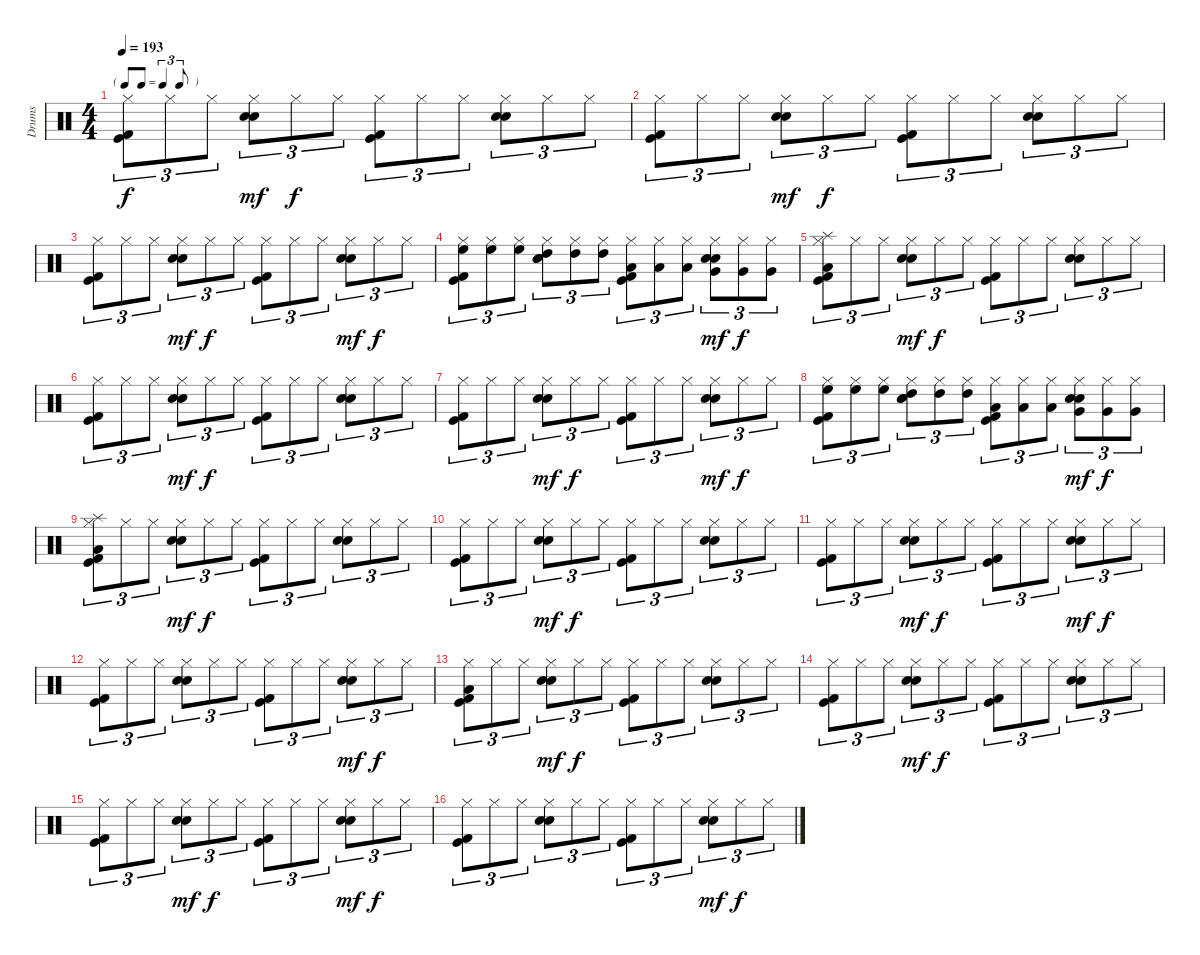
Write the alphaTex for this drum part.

\track ("Drums" "Drums") {instrument percussion}
\staff {score}
\articulation defaults
\ts (4 4)
\tf triplet8th
\tempo 193
\clef neutral
\ks c
("Hi-Hat (closed)" "Kick (hit) 2" "Kick (hit)").8{tu (3 2) dy f} "Hi-Hat (closed)".8{tu (3 2)} "Hi-Hat (closed)".8{tu (3 2)} ("Hi-Hat (closed)" "Electric Snare (hit)" "Snare (hit) 2").8{tu (3 2) dy mf} "Hi-Hat (closed)".8{tu (3 2) dy f} "Hi-Hat (closed)".8{tu (3 2)} ("Hi-Hat (closed)" "Kick (hit) 2" "Kick (hit)").8{tu (3 2)} "Hi-Hat (closed)".8{tu (3 2)} "Hi-Hat (closed)".8{tu (3 2)} ("Hi-Hat (closed)" "Snare (hit) 2" "Electric Snare (hit)").8{tu (3 2)} "Hi-Hat (closed)".8{tu (3 2)} "Hi-Hat (closed)".8{tu (3 2)} |
("Kick (hit)" "Kick (hit) 2" "Hi-Hat (closed)").8{tu (3 2)} "Hi-Hat (closed)".8{tu (3 2)} "Hi-Hat (closed)".8{tu (3 2)} ("Snare (hit) 2" "Electric Snare (hit)" "Hi-Hat (closed)").8{tu (3 2) dy mf} "Hi-Hat (closed)".8{tu (3 2) dy f} "Hi-Hat (closed)".8{tu (3 2)} ("Kick (hit)" "Kick (hit) 2" "Hi-Hat (closed)").8{tu (3 2)} "Hi-Hat (closed)".8{tu (3 2)} "Hi-Hat (closed)".8{tu (3 2)} ("Snare (hit) 2" "Electric Snare (hit)" "Hi-Hat (closed)").8{tu (3 2)} "Hi-Hat (closed)".8{tu (3 2)} "Hi-Hat (closed)".8{tu (3 2)} |
("Kick (hit) 2" "Kick (hit)" "Hi-Hat (closed)").8{tu (3 2)} "Hi-Hat (closed)".8{tu (3 2)} "Hi-Hat (closed)".8{tu (3 2)} ("Snare (hit) 2" "Electric Snare (hit)" "Hi-Hat (closed)").8{tu (3 2) dy mf} "Hi-Hat (closed)".8{tu (3 2) dy f} "Hi-Hat (closed)".8{tu (3 2)} ("Kick (hit)" "Kick (hit) 2" "Hi-Hat (closed)").8{tu (3 2)} "Hi-Hat (closed)".8{tu (3 2)} "Hi-Hat (closed)".8{tu (3 2)} ("Hi-Hat (closed)" "Electric Snare (hit)" "Snare (hit) 2").8{tu (3 2) dy mf} "Hi-Hat (closed)".8{tu (3 2) dy f} "Hi-Hat (closed)".8{tu (3 2)} |
("High Floor Tom (hit)" "Hi-Hat (closed)" "Kick (hit) 2" "Kick (hit)").8{tu (3 2)} ("High Floor Tom (hit)" "Hi-Hat (closed)").8{tu (3 2)} ("High Floor Tom (hit)" "Hi-Hat (closed)").8{tu (3 2)} ("High Tom (hit)" "Hi-Hat (closed)" "Snare (hit) 2" "Electric Snare (hit)").8{tu (3 2)} ("High Tom (hit)" "Hi-Hat (closed)").8{tu (3 2)} ("High Tom (hit)" "Hi-Hat (closed)").8{tu (3 2)} ("Low Tom (hit)" "Kick (hit)" "Kick (hit) 2" "Hi-Hat (closed)").8{tu (3 2)} ("Low Tom (hit)" "Hi-Hat (closed)").8{tu (3 2)} ("Low Tom (hit)" "Hi-Hat (closed)").8{tu (3 2)} ("Hi-Hat (closed)" "Very Low Tom (hit)" "Snare (hit) 2" "Electric Snare (hit)").8{tu (3 2) dy mf} ("Very Low Tom (hit)" "Hi-Hat (closed)").8{tu (3 2) dy f} ("Very Low Tom (hit)" "Hi-Hat (closed)").8{tu (3 2)} |
("Splash (hit)" "Hi-Hat (closed)" "Kick (hit) 2" "Kick (hit)" "Low Floor Tom (hit)").8{tu (3 2)} "Hi-Hat (closed)".8{tu (3 2)} "Hi-Hat (closed)".8{tu (3 2)} ("Hi-Hat (closed)" "Electric Snare (hit)" "Snare (hit) 2").8{tu (3 2) dy mf} "Hi-Hat (closed)".8{tu (3 2) dy f} "Hi-Hat (closed)".8{tu (3 2)} ("Hi-Hat (closed)" "Kick (hit) 2" "Kick (hit)").8{tu (3 2)} "Hi-Hat (closed)".8{tu (3 2)} "Hi-Hat (closed)".8{tu (3 2)} ("Hi-Hat (closed)" "Snare (hit) 2" "Electric Snare (hit)").8{tu (3 2)} "Hi-Hat (closed)".8{tu (3 2)} "Hi-Hat (closed)".8{tu (3 2)} |
("Kick (hit)" "Kick (hit) 2" "Hi-Hat (closed)").8{tu (3 2)} "Hi-Hat (closed)".8{tu (3 2)} "Hi-Hat (closed)".8{tu (3 2)} ("Snare (hit) 2" "Electric Snare (hit)" "Hi-Hat (closed)").8{tu (3 2) dy mf} "Hi-Hat (closed)".8{tu (3 2) dy f} "Hi-Hat (closed)".8{tu (3 2)} ("Kick (hit)" "Kick (hit) 2" "Hi-Hat (closed)").8{tu (3 2)} "Hi-Hat (closed)".8{tu (3 2)} "Hi-Hat (closed)".8{tu (3 2)} ("Snare (hit) 2" "Electric Snare (hit)" "Hi-Hat (closed)").8{tu (3 2)} "Hi-Hat (closed)".8{tu (3 2)} "Hi-Hat (closed)".8{tu (3 2)} |
("Kick (hit) 2" "Kick (hit)" "Hi-Hat (closed)").8{tu (3 2)} "Hi-Hat (closed)".8{tu (3 2)} "Hi-Hat (closed)".8{tu (3 2)} ("Snare (hit) 2" "Electric Snare (hit)" "Hi-Hat (closed)").8{tu (3 2) dy mf} "Hi-Hat (closed)".8{tu (3 2) dy f} "Hi-Hat (closed)".8{tu (3 2)} ("Kick (hit)" "Kick (hit) 2" "Hi-Hat (closed)").8{tu (3 2)} "Hi-Hat (closed)".8{tu (3 2)} "Hi-Hat (closed)".8{tu (3 2)} ("Hi-Hat (closed)" "Electric Snare (hit)" "Snare (hit) 2").8{tu (3 2) dy mf} "Hi-Hat (closed)".8{tu (3 2) dy f} "Hi-Hat (closed)".8{tu (3 2)} |
("High Floor Tom (hit)" "Hi-Hat (closed)" "Kick (hit) 2" "Kick (hit)").8{tu (3 2)} ("High Floor Tom (hit)" "Hi-Hat (closed)").8{tu (3 2)} ("High Floor Tom (hit)" "Hi-Hat (closed)").8{tu (3 2)} ("High Tom (hit)" "Hi-Hat (closed)" "Snare (hit) 2" "Electric Snare (hit)").8{tu (3 2)} ("High Tom (hit)" "Hi-Hat (closed)").8{tu (3 2)} ("High Tom (hit)" "Hi-Hat (closed)").8{tu (3 2)} ("Low Tom (hit)" "Kick (hit)" "Kick (hit) 2" "Hi-Hat (closed)").8{tu (3 2)} ("Low Tom (hit)" "Hi-Hat (closed)").8{tu (3 2)} ("Low Tom (hit)" "Hi-Hat (closed)").8{tu (3 2)} ("Hi-Hat (closed)" "Very Low Tom (hit)" "Snare (hit) 2" "Electric Snare (hit)").8{tu (3 2) dy mf} ("Very Low Tom (hit)" "Hi-Hat (closed)").8{tu (3 2) dy f} ("Very Low Tom (hit)" "Hi-Hat (closed)").8{tu (3 2)} |
("Splash (hit)" "Hi-Hat (closed)" "Kick (hit) 2" "Kick (hit)" "Low Floor Tom (hit)").8{tu (3 2)} "Hi-Hat (closed)".8{tu (3 2)} "Hi-Hat (closed)".8{tu (3 2)} ("Hi-Hat (closed)" "Electric Snare (hit)" "Snare (hit) 2").8{tu (3 2) dy mf} "Hi-Hat (closed)".8{tu (3 2) dy f} "Hi-Hat (closed)".8{tu (3 2)} ("Hi-Hat (closed)" "Kick (hit) 2" "Kick (hit)").8{tu (3 2)} "Hi-Hat (closed)".8{tu (3 2)} "Hi-Hat (closed)".8{tu (3 2)} ("Hi-Hat (closed)" "Snare (hit) 2" "Electric Snare (hit)").8{tu (3 2)} "Hi-Hat (closed)".8{tu (3 2)} "Hi-Hat (closed)".8{tu (3 2)} |
("Kick (hit)" "Kick (hit) 2" "Hi-Hat (closed)").8{tu (3 2)} "Hi-Hat (closed)".8{tu (3 2)} "Hi-Hat (closed)".8{tu (3 2)} ("Snare (hit) 2" "Electric Snare (hit)" "Hi-Hat (closed)").8{tu (3 2) dy mf} "Hi-Hat (closed)".8{tu (3 2) dy f} "Hi-Hat (closed)".8{tu (3 2)} ("Kick (hit)" "Kick (hit) 2" "Hi-Hat (closed)").8{tu (3 2)} "Hi-Hat (closed)".8{tu (3 2)} "Hi-Hat (closed)".8{tu (3 2)} ("Snare (hit) 2" "Electric Snare (hit)" "Hi-Hat (closed)").8{tu (3 2)} "Hi-Hat (closed)".8{tu (3 2)} "Hi-Hat (closed)".8{tu (3 2)} |
("Kick (hit) 2" "Kick (hit)" "Hi-Hat (closed)").8{tu (3 2)} "Hi-Hat (closed)".8{tu (3 2)} "Hi-Hat (closed)".8{tu (3 2)} ("Snare (hit) 2" "Electric Snare (hit)" "Hi-Hat (closed)").8{tu (3 2) dy mf} "Hi-Hat (closed)".8{tu (3 2) dy f} "Hi-Hat (closed)".8{tu (3 2)} ("Kick (hit)" "Kick (hit) 2" "Hi-Hat (closed)").8{tu (3 2)} "Hi-Hat (closed)".8{tu (3 2)} "Hi-Hat (closed)".8{tu (3 2)} ("Hi-Hat (closed)" "Electric Snare (hit)" "Snare (hit) 2").8{tu (3 2) dy mf} "Hi-Hat (closed)".8{tu (3 2) dy f} "Hi-Hat (closed)".8{tu (3 2)} |
("Hi-Hat (closed)" "Kick (hit) 2" "Kick (hit)").8{tu (3 2)} "Hi-Hat (closed)".8{tu (3 2)} "Hi-Hat (closed)".8{tu (3 2)} ("Hi-Hat (closed)" "Snare (hit) 2" "Electric Snare (hit)").8{tu (3 2)} "Hi-Hat (closed)".8{tu (3 2)} "Hi-Hat (closed)".8{tu (3 2)} ("Kick (hit)" "Kick (hit) 2" "Hi-Hat (closed)").8{tu (3 2)} "Hi-Hat (closed)".8{tu (3 2)} "Hi-Hat (closed)".8{tu (3 2)} ("Hi-Hat (closed)" "Snare (hit) 2" "Electric Snare (hit)").8{tu (3 2) dy mf} "Hi-Hat (closed)".8{tu (3 2) dy f} "Hi-Hat (closed)".8{tu (3 2)} |
("Hi-Hat (closed)" "Kick (hit) 2" "Kick (hit)" "Low Floor Tom (hit)").8{tu (3 2)} "Hi-Hat (closed)".8{tu (3 2)} "Hi-Hat (closed)".8{tu (3 2)} ("Hi-Hat (closed)" "Electric Snare (hit)" "Snare (hit) 2").8{tu (3 2) dy mf} "Hi-Hat (closed)".8{tu (3 2) dy f} "Hi-Hat (closed)".8{tu (3 2)} ("Hi-Hat (closed)" "Kick (hit) 2" "Kick (hit)").8{tu (3 2)} "Hi-Hat (closed)".8{tu (3 2)} "Hi-Hat (closed)".8{tu (3 2)} ("Hi-Hat (closed)" "Snare (hit) 2" "Electric Snare (hit)").8{tu (3 2)} "Hi-Hat (closed)".8{tu (3 2)} "Hi-Hat (closed)".8{tu (3 2)} |
("Kick (hit)" "Kick (hit) 2" "Hi-Hat (closed)").8{tu (3 2)} "Hi-Hat (closed)".8{tu (3 2)} "Hi-Hat (closed)".8{tu (3 2)} ("Snare (hit) 2" "Electric Snare (hit)" "Hi-Hat (closed)").8{tu (3 2) dy mf} "Hi-Hat (closed)".8{tu (3 2) dy f} "Hi-Hat (closed)".8{tu (3 2)} ("Kick (hit)" "Kick (hit) 2" "Hi-Hat (closed)").8{tu (3 2)} "Hi-Hat (closed)".8{tu (3 2)} "Hi-Hat (closed)".8{tu (3 2)} ("Snare (hit) 2" "Electric Snare (hit)" "Hi-Hat (closed)").8{tu (3 2)} "Hi-Hat (closed)".8{tu (3 2)} "Hi-Hat (closed)".8{tu (3 2)} |
("Kick (hit) 2" "Kick (hit)" "Hi-Hat (closed)").8{tu (3 2)} "Hi-Hat (closed)".8{tu (3 2)} "Hi-Hat (closed)".8{tu (3 2)} ("Snare (hit) 2" "Electric Snare (hit)" "Hi-Hat (closed)").8{tu (3 2) dy mf} "Hi-Hat (closed)".8{tu (3 2) dy f} "Hi-Hat (closed)".8{tu (3 2)} ("Kick (hit)" "Kick (hit) 2" "Hi-Hat (closed)").8{tu (3 2)} "Hi-Hat (closed)".8{tu (3 2)} "Hi-Hat (closed)".8{tu (3 2)} ("Hi-Hat (closed)" "Electric Snare (hit)" "Snare (hit) 2").8{tu (3 2) dy mf} "Hi-Hat (closed)".8{tu (3 2) dy f} "Hi-Hat (closed)".8{tu (3 2)} |
("Hi-Hat (closed)" "Kick (hit) 2" "Kick (hit)").8{tu (3 2)} "Hi-Hat (closed)".8{tu (3 2)} "Hi-Hat (closed)".8{tu (3 2)} ("Hi-Hat (closed)" "Snare (hit) 2" "Electric Snare (hit)").8{tu (3 2)} "Hi-Hat (closed)".8{tu (3 2)} "Hi-Hat (closed)".8{tu (3 2)} ("Kick (hit)" "Kick (hit) 2" "Hi-Hat (closed)").8{tu (3 2)} "Hi-Hat (closed)".8{tu (3 2)} "Hi-Hat (closed)".8{tu (3 2)} ("Hi-Hat (closed)" "Snare (hit) 2" "Electric Snare (hit)").8{tu (3 2) dy mf} "Hi-Hat (closed)".8{tu (3 2) dy f} "Hi-Hat (closed)".8{tu (3 2)}
